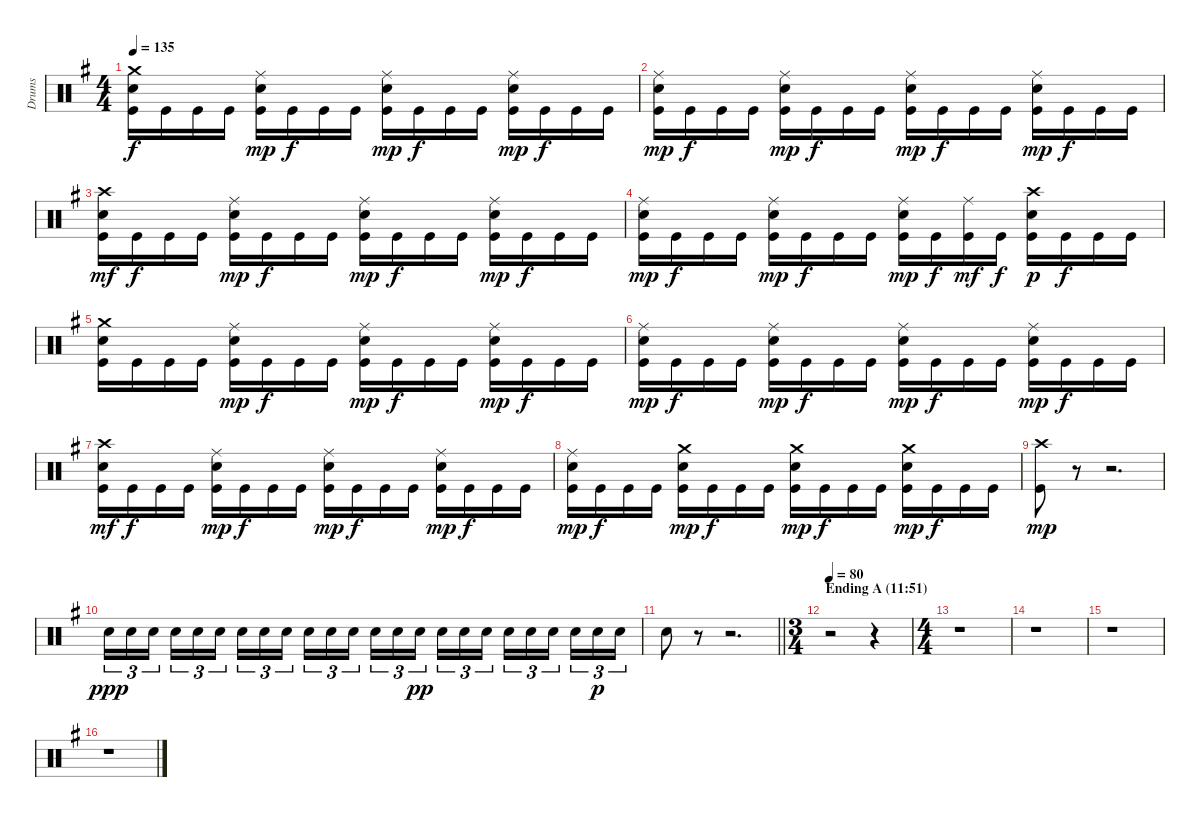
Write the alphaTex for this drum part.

\track ("Drums" "Drums") {instrument percussion}
\staff {score}
\articulation defaults
\ts (4 4)
\tempo 135
\clef neutral
\ks eminor
("Crash medium (hit)" "Snare (hit) 2" "Kick (hit)").16{dy f} "Kick (hit)".16 "Kick (hit)".16 "Kick (hit)".16 ("Ride (middle)" "Snare (hit) 2" "Kick (hit)").16{dy mp} "Kick (hit)".16{dy f} "Kick (hit)".16 "Kick (hit)".16 ("Ride (middle)" "Snare (hit) 2" "Kick (hit)").16{dy mp} "Kick (hit)".16{dy f} "Kick (hit)".16 "Kick (hit)".16 ("Ride (middle)" "Snare (hit) 2" "Kick (hit)").16{dy mp} "Kick (hit)".16{dy f} "Kick (hit)".16 "Kick (hit)".16 |
("Ride (middle)" "Snare (hit) 2" "Kick (hit)").16{dy mp} "Kick (hit)".16{dy f} "Kick (hit)".16 "Kick (hit)".16 ("Ride (middle)" "Snare (hit) 2" "Kick (hit)").16{dy mp} "Kick (hit)".16{dy f} "Kick (hit)".16 "Kick (hit)".16 ("Ride (middle)" "Snare (hit) 2" "Kick (hit)").16{dy mp} "Kick (hit)".16{dy f} "Kick (hit)".16 "Kick (hit)".16 ("Ride (middle)" "Snare (hit) 2" "Kick (hit)").16{dy mp} "Kick (hit)".16{dy f} "Kick (hit)".16 "Kick (hit)".16 |
("Crash high (hit)" "Snare (hit) 2" "Kick (hit)").16{dy mf} "Kick (hit)".16{dy f} "Kick (hit)".16 "Kick (hit)".16 ("Ride (middle)" "Snare (hit) 2" "Kick (hit)").16{dy mp} "Kick (hit)".16{dy f} "Kick (hit)".16 "Kick (hit)".16 ("Ride (middle)" "Snare (hit) 2" "Kick (hit)").16{dy mp} "Kick (hit)".16{dy f} "Kick (hit)".16 "Kick (hit)".16 ("Ride (middle)" "Snare (hit) 2" "Kick (hit)").16{dy mp} "Kick (hit)".16{dy f} "Kick (hit)".16 "Kick (hit)".16 |
("Ride (middle)" "Snare (hit) 2" "Kick (hit)").16{dy mp} "Kick (hit)".16{dy f} "Kick (hit)".16 "Kick (hit)".16 ("Ride (middle)" "Snare (hit) 2" "Kick (hit)").16{dy mp} "Kick (hit)".16{dy f} "Kick (hit)".16 "Kick (hit)".16 ("Ride (middle)" "Snare (hit) 2" "Kick (hit)").16{dy mp} "Kick (hit)".16{dy f} ("Ride (middle)" "Kick (hit)").16{dy mf} "Kick (hit)".16{dy f} ("Crash high (hit)" "Snare (hit) 2" "Kick (hit)").16{dy p} "Kick (hit)".16{dy f} "Kick (hit)".16 "Kick (hit)".16 |
("Crash medium (hit)" "Snare (hit) 2" "Kick (hit)").16 "Kick (hit)".16 "Kick (hit)".16 "Kick (hit)".16 ("Ride (middle)" "Snare (hit) 2" "Kick (hit)").16{dy mp} "Kick (hit)".16{dy f} "Kick (hit)".16 "Kick (hit)".16 ("Ride (middle)" "Snare (hit) 2" "Kick (hit)").16{dy mp} "Kick (hit)".16{dy f} "Kick (hit)".16 "Kick (hit)".16 ("Ride (middle)" "Snare (hit) 2" "Kick (hit)").16{dy mp} "Kick (hit)".16{dy f} "Kick (hit)".16 "Kick (hit)".16 |
("Ride (middle)" "Snare (hit) 2" "Kick (hit)").16{dy mp} "Kick (hit)".16{dy f} "Kick (hit)".16 "Kick (hit)".16 ("Ride (middle)" "Snare (hit) 2" "Kick (hit)").16{dy mp} "Kick (hit)".16{dy f} "Kick (hit)".16 "Kick (hit)".16 ("Ride (middle)" "Snare (hit) 2" "Kick (hit)").16{dy mp} "Kick (hit)".16{dy f} "Kick (hit)".16 "Kick (hit)".16 ("Ride (middle)" "Snare (hit) 2" "Kick (hit)").16{dy mp} "Kick (hit)".16{dy f} "Kick (hit)".16 "Kick (hit)".16 |
("Crash high (hit)" "Snare (hit) 2" "Kick (hit)").16{dy mf} "Kick (hit)".16{dy f} "Kick (hit)".16 "Kick (hit)".16 ("Ride (middle)" "Snare (hit) 2" "Kick (hit)").16{dy mp} "Kick (hit)".16{dy f} "Kick (hit)".16 "Kick (hit)".16 ("Ride (middle)" "Snare (hit) 2" "Kick (hit)").16{dy mp} "Kick (hit)".16{dy f} "Kick (hit)".16 "Kick (hit)".16 ("Ride (middle)" "Snare (hit) 2" "Kick (hit)").16{dy mp} "Kick (hit)".16{dy f} "Kick (hit)".16 "Kick (hit)".16 |
("Ride (middle)" "Snare (hit) 2" "Kick (hit)").16{dy mp} "Kick (hit)".16{dy f} "Kick (hit)".16 "Kick (hit)".16 ("Crash medium (hit)" "Snare (hit) 2" "Kick (hit)").16{dy mp} "Kick (hit)".16{dy f} "Kick (hit)".16 "Kick (hit)".16 ("Crash medium (hit)" "Snare (hit) 2" "Kick (hit)").16{dy mp} "Kick (hit)".16{dy f} "Kick (hit)".16 "Kick (hit)".16 ("Crash medium (hit)" "Snare (hit) 2" "Kick (hit)").16{dy mp} "Kick (hit)".16{dy f} "Kick (hit)".16 "Kick (hit)".16 |
("Crash high (hit)" "Kick (hit)").8{dy mp} r.8 r.2{d} |
"Snare (hit) 2".16{tu (3 2) dy ppp} "Snare (hit) 2".16{tu (3 2)} "Snare (hit) 2".16{tu (3 2) beam splitsecondary} "Snare (hit) 2".16{tu (3 2)} "Snare (hit) 2".16{tu (3 2)} "Snare (hit) 2".16{tu (3 2)} "Snare (hit) 2".16{tu (3 2)} "Snare (hit) 2".16{tu (3 2)} "Snare (hit) 2".16{tu (3 2) beam splitsecondary} "Snare (hit) 2".16{tu (3 2)} "Snare (hit) 2".16{tu (3 2)} "Snare (hit) 2".16{tu (3 2)} "Snare (hit) 2".16{tu (3 2)} "Snare (hit) 2".16{tu (3 2)} "Snare (hit) 2".16{tu (3 2) dy pp beam splitsecondary} "Snare (hit) 2".16{tu (3 2)} "Snare (hit) 2".16{tu (3 2)} "Snare (hit) 2".16{tu (3 2)} "Snare (hit) 2".16{tu (3 2)} "Snare (hit) 2".16{tu (3 2)} "Snare (hit) 2".16{tu (3 2) beam splitsecondary} "Snare (hit) 2".16{tu (3 2)} "Snare (hit) 2".16{tu (3 2) dy p} "Snare (hit) 2".16{tu (3 2)} |
\barLineRight lightlight "Snare (hit) 2".8
r.8 r.2{d} |
\ts (3 4)
\section ("" "Ending A (11:51)")
\tempo 80
r.2 r.4 |
\ts (4 4)
r.1 |
r.1 |
r.1 |
r.1
